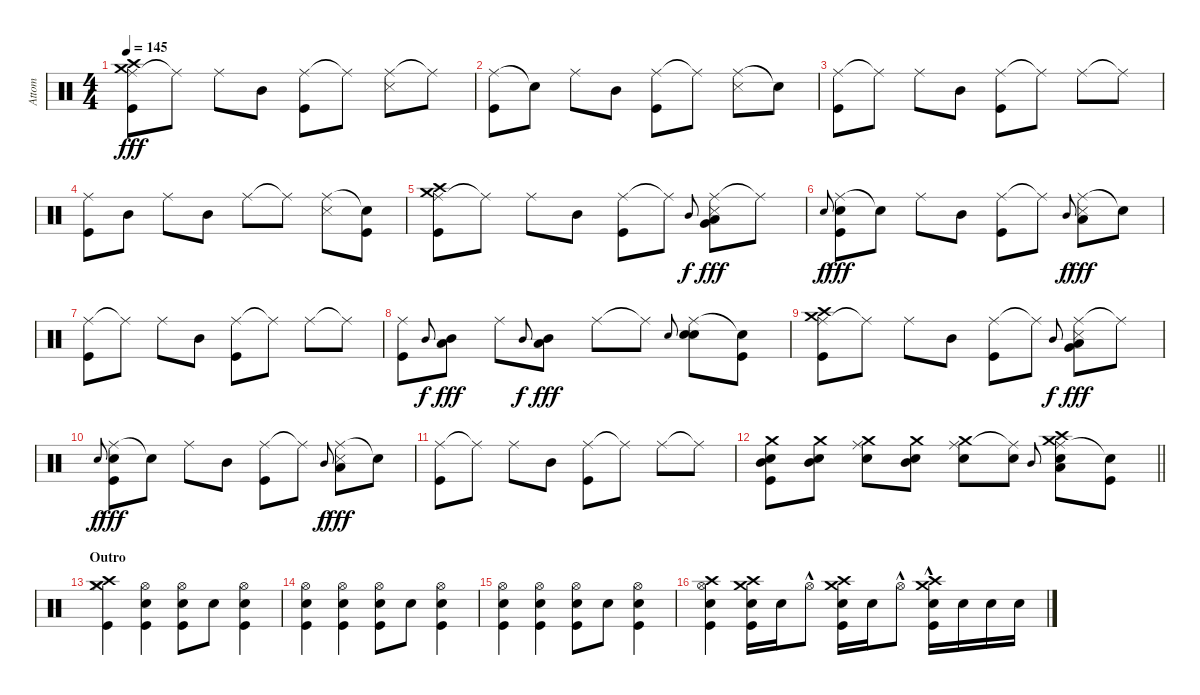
\track ("Attom" "Attom") {instrument percussion}
\staff {score}
\articulation defaults
\ts (4 4)
\tempo 145
\clef neutral
\ks c
("Ride (middle)" "Crash medium (hit)" "Crash high (hit)" "Kick (hit)").8{dy fff} "Ride (middle)"{t}.8 "Ride (middle)".8 "Mid Tom (hit)".8 ("Ride (middle)" "Kick (hit)").8 "Ride (middle)"{t}.8 ("Ride (middle)" "Snare (side stick) 3").8 "Ride (middle)"{t}.8 |
("Ride (middle)" "Kick (hit)").8 "Snare (hit)"{t}.8 "Ride (middle)".8 "Mid Tom (hit)".8 ("Ride (middle)" "Kick (hit)").8 "Ride (middle)"{t}.8 ("Ride (middle)" "Snare (side stick) 3").8 "Snare (hit)"{t}.8 |
("Ride (middle)" "Kick (hit)").8 "Ride (middle)"{t}.8 "Ride (middle)".8 "Mid Tom (hit)".8 ("Ride (middle)" "Kick (hit)").8 "Ride (middle)"{t}.8 "Ride (middle)".8 "Ride (middle)"{t}.8 |
("Ride (middle)" "Kick (hit)").8 "Mid Tom (hit)".8 "Ride (middle)".8 "Mid Tom (hit)".8 "Ride (middle)".8 "Ride (middle)"{t}.8 ("Ride (middle)" "Snare (side stick) 3").8 ("Snare (hit)"{t} "Kick (hit)").8 |
("Ride (middle)" "Crash medium (hit)" "Crash high (hit)" "Kick (hit)").8 "Ride (middle)"{t}.8 "Ride (middle)".8 "Mid Tom (hit)".8 ("Ride (middle)" "Kick (hit)").8 "Ride (middle)"{t}.8 "Mid Tom (hit)".8{gr onbeat dy f} ("Ride (middle)" "Very Low Tom (hit)" "Snare (side stick) 3" "Low Floor Tom (hit)").8{dy fff} "Ride (middle)"{t}.8 |
"Snare (hit) 2".8{gr onbeat dy f} ("Ride (middle)" "Snare (hit) 2" "Kick (hit)").8{dy fff} "Snare (hit)"{t}.8 "Ride (middle)".8 "Mid Tom (hit)".8 ("Ride (middle)" "Kick (hit)").8 "Ride (middle)"{t}.8 "Mid Tom (hit)".8{gr onbeat dy f} ("Ride (middle)" "Snare (side stick) 3" "Low Floor Tom (hit)").8{dy fff} "Snare (hit)"{t}.8 |
("Ride (middle)" "Kick (hit)").8 "Ride (middle)"{t}.8 "Ride (middle)".8 "Mid Tom (hit)".8 ("Ride (middle)" "Kick (hit)").8 "Ride (middle)"{t}.8 "Ride (middle)".8 "Ride (middle)"{t}.8 |
("Ride (middle)" "Kick (hit)").8 "Mid Tom (hit)".8{gr onbeat dy f} ("Mid Tom (hit)" "Low Floor Tom (hit)").8{dy fff} "Ride (middle)".8 "Mid Tom (hit)".8{gr onbeat dy f} ("Mid Tom (hit)" "Low Floor Tom (hit)").8{dy fff} "Ride (middle)".8 "Ride (middle)"{t}.8 "Electric Snare (hit)".8{gr onbeat} ("Ride (middle)" "Snare (hit) 2" "Electric Snare (hit)").8 ("Snare (hit)"{t} "Kick (hit)").8 |
("Ride (middle)" "Crash medium (hit)" "Crash high (hit)" "Kick (hit)").8 "Ride (middle)"{t}.8 "Ride (middle)".8 "Mid Tom (hit)".8 ("Ride (middle)" "Kick (hit)").8 "Ride (middle)"{t}.8 "Mid Tom (hit)".8{gr onbeat dy f} ("Ride (middle)" "Very Low Tom (hit)" "Snare (side stick) 3" "Low Floor Tom (hit)").8{dy fff} "Ride (middle)"{t}.8 |
"Snare (hit) 2".8{gr onbeat dy f} ("Ride (middle)" "Snare (hit) 2" "Kick (hit)").8{dy fff} "Snare (hit)"{t}.8 "Ride (middle)".8 "Mid Tom (hit)".8 ("Ride (middle)" "Kick (hit)").8 "Ride (middle)"{t}.8 "Mid Tom (hit)".8{gr onbeat dy f} ("Ride (middle)" "Snare (side stick) 3" "Low Floor Tom (hit)").8{dy fff} "Snare (hit)"{t}.8 |
("Ride (middle)" "Kick (hit)").8 "Ride (middle)"{t}.8 "Ride (middle)".8 "Mid Tom (hit)".8 ("Ride (middle)" "Kick (hit)").8 "Ride (middle)"{t}.8 "Ride (middle)".8 "Ride (middle)"{t}.8 |
\barLineRight lightlight
("Mid Tom (hit)" "Crash medium (hit)" "Electric Snare (hit)" "Kick (hit)").8 ("Mid Tom (hit)" "Crash medium (hit)" "Electric Snare (hit)").8 ("Ride (middle)" "Crash medium (hit)" "Electric Snare (hit)").8 ("Mid Tom (hit)" "Crash medium (hit)" "Electric Snare (hit)").8 ("Ride (middle)" "Crash medium (hit)" "Electric Snare (hit)").8 ("Ride (middle)"{t} "Electric Snare (hit)").8 "Mid Tom (hit)".8{gr onbeat} ("Ride (middle)" "Crash medium (hit)" "Crash high (hit)" "Electric Snare (hit)" "Low Floor Tom (hit)").8 ("Snare (hit)"{t} "Kick (hit)").8 |
\section ("" "Outro")
("Hi-Hat (closed)" "Crash medium (hit)" "Crash high (hit)" "Kick (hit)").4 ("Hi-Hat (open)" "Snare (hit) 2" "Kick (hit)").4 ("Hi-Hat (open)" "Snare (hit) 2" "Kick (hit)").8 "Snare (hit) 2".8 ("Hi-Hat (open)" "Snare (hit) 2" "Kick (hit)").4 |
("Hi-Hat (open)" "Snare (hit) 2" "Kick (hit)").4 ("Hi-Hat (open)" "Snare (hit) 2" "Kick (hit)").4 ("Hi-Hat (open)" "Snare (hit) 2" "Kick (hit)").8 "Snare (hit) 2".8 ("Hi-Hat (open)" "Snare (hit) 2" "Kick (hit)").4 |
("Hi-Hat (open)" "Snare (hit) 2" "Kick (hit)").4 ("Hi-Hat (open)" "Snare (hit) 2" "Kick (hit)").4 ("Hi-Hat (open)" "Snare (hit) 2" "Kick (hit)").8 "Snare (hit) 2".8 ("Hi-Hat (open)" "Snare (hit) 2" "Kick (hit)").4 |
("Crash high (hit)" "Hi-Hat (open)" "Snare (hit) 2" "Kick (hit)").4 ("Crash high (hit)" "Crash medium (hit)" "Snare (hit) 2" "Kick (hit)").16 "Snare (hit) 2".16 "Hi-Hat (open)"{hac}.8 ("Crash high (hit)" "Crash medium (hit)" "Snare (hit) 2" "Kick (hit)").16 "Snare (hit) 2".16 "Hi-Hat (open)"{hac}.8 ("Crash high (hit)" "Crash medium (hit)" "Snare (hit) 2"{hac} "Kick (hit)").16 "Snare (hit) 2".16 "Snare (hit) 2".16 "Snare (hit) 2".16
